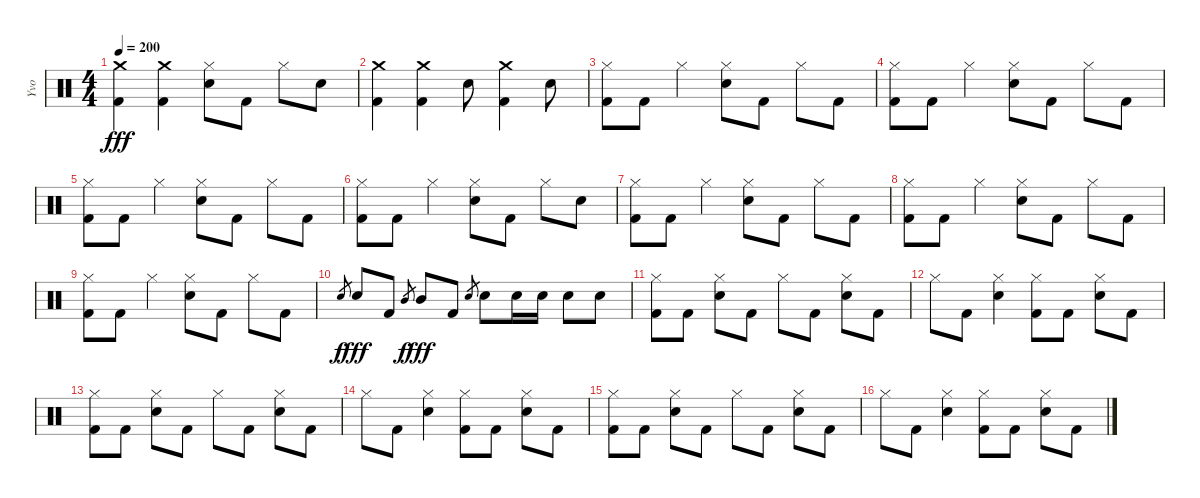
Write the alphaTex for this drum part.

\track ("Yvo" "Yvo") {instrument percussion}
\staff {score}
\articulation defaults
\ts (4 4)
\tempo 200
\clef neutral
\ks c
("Crash medium (hit)" "Kick (hit) 2").4{dy fff} ("Crash medium (hit)" "Kick (hit) 2").4 ("Hi-Hat (closed)" "Electric Snare (hit)").8 "Kick (hit) 2".8 "Hi-Hat (closed)".8 "Electric Snare (hit)".8 |
("Crash medium (hit)" "Kick (hit) 2").4 ("Crash medium (hit)" "Kick (hit) 2").4 "Electric Snare (hit)".8 ("Crash medium (hit)" "Kick (hit) 2").4 "Electric Snare (hit)".8 |
("Hi-Hat (closed)" "Kick (hit) 2").8 "Kick (hit) 2".8 "Hi-Hat (closed)".4 ("Hi-Hat (closed)" "Electric Snare (hit)").8 "Kick (hit) 2".8 "Hi-Hat (closed)".8 "Kick (hit) 2".8 |
("Hi-Hat (closed)" "Kick (hit) 2").8 "Kick (hit) 2".8 "Hi-Hat (closed)".4 ("Hi-Hat (closed)" "Electric Snare (hit)").8 "Kick (hit) 2".8 "Hi-Hat (closed)".8 "Kick (hit) 2".8 |
("Hi-Hat (closed)" "Kick (hit) 2").8 "Kick (hit) 2".8 "Hi-Hat (closed)".4 ("Hi-Hat (closed)" "Electric Snare (hit)").8 "Kick (hit) 2".8 "Hi-Hat (closed)".8 "Kick (hit) 2".8 |
("Hi-Hat (closed)" "Kick (hit) 2").8 "Kick (hit) 2".8 "Hi-Hat (closed)".4 ("Hi-Hat (closed)" "Electric Snare (hit)").8 "Kick (hit) 2".8 "Hi-Hat (closed)".8 "Electric Snare (hit)".8 |
("Hi-Hat (closed)" "Kick (hit) 2").8 "Kick (hit) 2".8 "Hi-Hat (closed)".4 ("Hi-Hat (closed)" "Electric Snare (hit)").8 "Kick (hit) 2".8 "Hi-Hat (closed)".8 "Kick (hit) 2".8 |
("Hi-Hat (closed)" "Kick (hit) 2").8 "Kick (hit) 2".8 "Hi-Hat (closed)".4 ("Hi-Hat (closed)" "Electric Snare (hit)").8 "Kick (hit) 2".8 "Hi-Hat (closed)".8 "Kick (hit) 2".8 |
("Hi-Hat (closed)" "Kick (hit) 2").8 "Kick (hit) 2".8 "Hi-Hat (closed)".4 ("Hi-Hat (closed)" "Electric Snare (hit)").8 "Kick (hit) 2".8 "Hi-Hat (closed)".8 "Kick (hit) 2".8 |
"Electric Snare (hit)".8{gr dy f} "Electric Snare (hit)".8{dy fff} "Kick (hit) 2".8 "Mid Tom (hit)".8{gr dy f} "Mid Tom (hit)".8{dy fff} "Kick (hit) 2".8 "Electric Snare (hit)".8{gr} "Electric Snare (hit)".8 "Electric Snare (hit)".16 "Electric Snare (hit)".16 "Electric Snare (hit)".8 "Electric Snare (hit)".8 |
("Hi-Hat (closed)" "Kick (hit) 2").8 "Kick (hit) 2".8 ("Hi-Hat (closed)" "Electric Snare (hit)").8 "Kick (hit) 2".8 "Hi-Hat (closed)".8 "Kick (hit) 2".8 ("Hi-Hat (closed)" "Electric Snare (hit)").8 "Kick (hit) 2".8 |
"Hi-Hat (closed)".8 "Kick (hit) 2".8 ("Hi-Hat (closed)" "Electric Snare (hit)").4 ("Hi-Hat (closed)" "Kick (hit) 2").8 "Kick (hit) 2".8 ("Hi-Hat (closed)" "Electric Snare (hit)").8 "Kick (hit) 2".8 |
("Hi-Hat (closed)" "Kick (hit) 2").8 "Kick (hit) 2".8 ("Hi-Hat (closed)" "Electric Snare (hit)").8 "Kick (hit) 2".8 "Hi-Hat (closed)".8 "Kick (hit) 2".8 ("Hi-Hat (closed)" "Electric Snare (hit)").8 "Kick (hit) 2".8 |
"Hi-Hat (closed)".8 "Kick (hit) 2".8 ("Hi-Hat (closed)" "Electric Snare (hit)").4 ("Hi-Hat (closed)" "Kick (hit) 2").8 "Kick (hit) 2".8 ("Hi-Hat (closed)" "Electric Snare (hit)").8 "Kick (hit) 2".8 |
("Hi-Hat (closed)" "Kick (hit) 2").8 "Kick (hit) 2".8 ("Hi-Hat (closed)" "Electric Snare (hit)").8 "Kick (hit) 2".8 "Hi-Hat (closed)".8 "Kick (hit) 2".8 ("Hi-Hat (closed)" "Electric Snare (hit)").8 "Kick (hit) 2".8 |
"Hi-Hat (closed)".8 "Kick (hit) 2".8 ("Hi-Hat (closed)" "Electric Snare (hit)").4 ("Hi-Hat (closed)" "Kick (hit) 2").8 "Kick (hit) 2".8 ("Hi-Hat (closed)" "Electric Snare (hit)").8 "Kick (hit) 2".8
